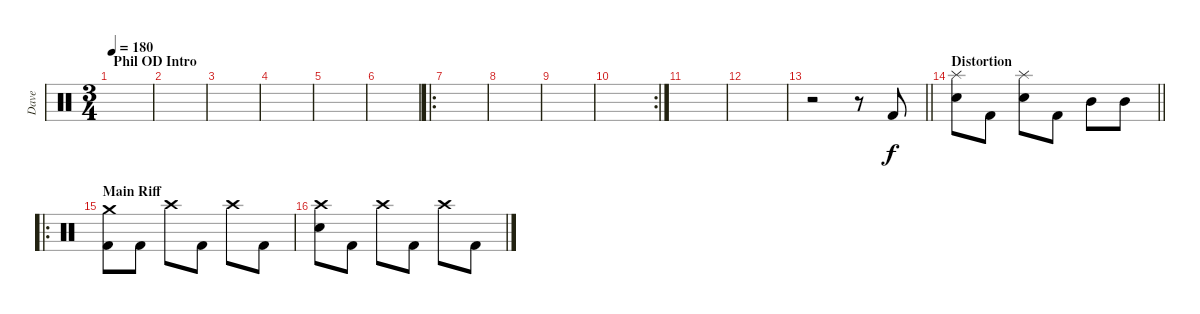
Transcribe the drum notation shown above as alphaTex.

\track ("Dave" "Dave") {instrument percussion}
\staff {score}
\articulation defaults
\ts (3 4)
\section ("" "Phil OD Intro")
\tempo 180
\clef neutral
\ks c
|
|
|
|
|
|
\ro
|
|
|
\rc 2
|
|
|
\barLineRight lightlight
r.2 r.8 "Kick (hit) 2".8 |
\section ("" "Distortion")
\barLineRight lightlight
("Electric Snare (hit)" "Splash (hit)").8 "Kick (hit) 2".8 ("Electric Snare (hit)" "Splash (hit)").8 "Kick (hit) 2".8 "Mid Tom (hit)".8 "Mid Tom (hit)".8 |
\ro
\section ("" "Main Riff")
("Kick (hit) 2" "Crash medium (hit)").8 "Kick (hit) 2".8 "Crash high (hit)".8 "Kick (hit) 2".8 "Crash high (hit)".8 "Kick (hit) 2".8 |
("Electric Snare (hit)" "Crash high (hit)").8 "Kick (hit) 2".8 "Crash high (hit)".8 "Kick (hit) 2".8 "Crash high (hit)".8 "Kick (hit) 2".8
